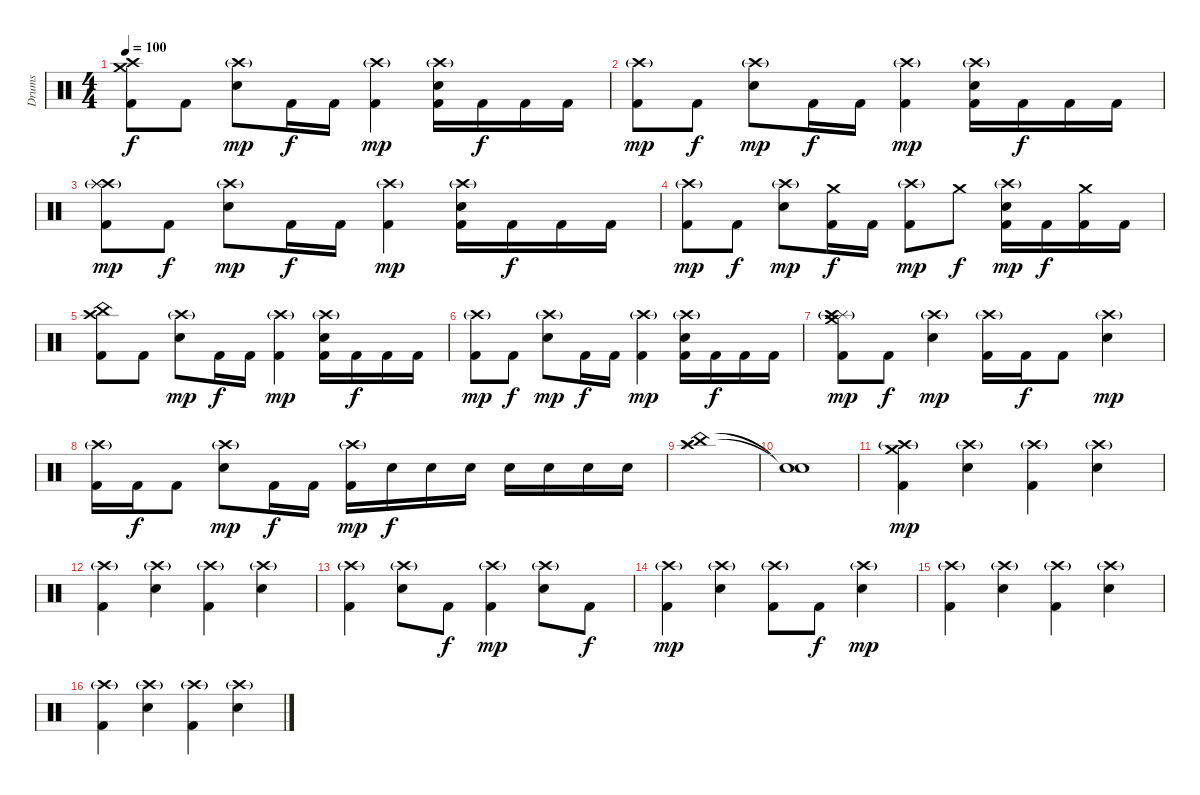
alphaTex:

\track ("Drums" "Drums") {instrument percussion}
\staff {score}
\articulation defaults
\ts (4 4)
\tempo 100
\clef neutral
\ks c
("Crash high (hit)" "Crash medium (hit)" "Kick (hit) 2").8{dy f} "Kick (hit) 2".8 ("Crash high (hit)"{g} "Electric Snare (hit)").8{dy mp} "Kick (hit) 2".16{dy f} "Kick (hit) 2".16 ("Crash high (hit)"{g} "Kick (hit) 2").4{dy mp} ("Crash high (hit)"{g} "Electric Snare (hit)" "Kick (hit) 2").16 "Kick (hit) 2".16{dy f} "Kick (hit) 2".16 "Kick (hit) 2".16 |
("Crash high (hit)"{g} "Kick (hit) 2").8{dy mp} "Kick (hit) 2".8{dy f} ("Crash high (hit)"{g} "Electric Snare (hit)").8{dy mp} "Kick (hit) 2".16{dy f} "Kick (hit) 2".16 ("Crash high (hit)"{g} "Kick (hit) 2").4{dy mp} ("Crash high (hit)"{g} "Electric Snare (hit)" "Kick (hit) 2").16 "Kick (hit) 2".16{dy f} "Kick (hit) 2".16 "Kick (hit) 2".16 |
("Crash high (hit)"{g} "Splash (hit)" "Splash (hit)" "Splash (hit)" "Kick (hit) 2").8{dy mp} "Kick (hit) 2".8{dy f} ("Crash high (hit)"{g} "Electric Snare (hit)").8{dy mp} "Kick (hit) 2".16{dy f} "Kick (hit) 2".16 ("Crash high (hit)"{g} "Kick (hit) 2").4{dy mp} ("Crash high (hit)"{g} "Electric Snare (hit)" "Kick (hit) 2").16 "Kick (hit) 2".16{dy f} "Kick (hit) 2".16 "Kick (hit) 2".16 |
("Crash high (hit)"{g} "Kick (hit) 2").8{dy mp} "Kick (hit) 2".8{dy f} ("Crash high (hit)"{g} "Electric Snare (hit)").8{dy mp} ("Crash medium (hit)" "Kick (hit) 2").16{dy f} "Kick (hit) 2".16 ("Crash high (hit)"{g} "Kick (hit) 2").8{dy mp} "Crash medium (hit)".8{dy f} ("Crash high (hit)"{g} "Electric Snare (hit)" "Kick (hit) 2").16{dy mp} "Kick (hit) 2".16{dy f} ("Crash medium (hit)" "Kick (hit) 2").16 "Kick (hit) 2".16 |
("Crash high (hit)" "China (hit)" "Kick (hit) 2").8 "Kick (hit) 2".8 ("Crash high (hit)"{g} "Electric Snare (hit)").8{dy mp} "Kick (hit) 2".16{dy f} "Kick (hit) 2".16 ("Crash high (hit)"{g} "Kick (hit) 2").4{dy mp} ("Crash high (hit)"{g} "Electric Snare (hit)" "Kick (hit) 2").16 "Kick (hit) 2".16{dy f} "Kick (hit) 2".16 "Kick (hit) 2".16 |
("Crash high (hit)"{g} "Kick (hit) 2").8{dy mp} "Kick (hit) 2".8{dy f} ("Crash high (hit)"{g} "Electric Snare (hit)").8{dy mp} "Kick (hit) 2".16{dy f} "Kick (hit) 2".16 ("Crash high (hit)"{g} "Kick (hit) 2").4{dy mp} ("Crash high (hit)"{g} "Electric Snare (hit)" "Kick (hit) 2").16 "Kick (hit) 2".16{dy f} "Kick (hit) 2".16 "Kick (hit) 2".16 |
("Crash medium (hit)" "Splash (hit)" "Crash high (hit)"{g} "Kick (hit) 2").8{dy mp} "Kick (hit) 2".8{dy f} ("Crash high (hit)"{g} "Electric Snare (hit)").4{dy mp} ("Crash high (hit)"{g} "Kick (hit) 2").16 "Kick (hit) 2".16{dy f} "Kick (hit) 2".8 ("Crash high (hit)"{g} "Electric Snare (hit)").4{dy mp} |
("Crash high (hit)"{g} "Kick (hit) 2").16 "Kick (hit) 2".16{dy f} "Kick (hit) 2".8 ("Crash high (hit)"{g} "Electric Snare (hit)").8{dy mp} "Kick (hit) 2".16{dy f} "Kick (hit) 2".16 ("Crash high (hit)"{g} "Kick (hit) 2").16{dy mp} "Electric Snare (hit)".16{dy f} "Electric Snare (hit)".16 "Electric Snare (hit)".16 "Electric Snare (hit)".16 "Electric Snare (hit)".16 "Electric Snare (hit)".16 "Electric Snare (hit)".16 |
("Splash (hit)" "China (hit)" "Crash high (hit)").1 |
("Snare (hit)"{t} "Snare (hit)"{t}).1 |
("Crash high (hit)"{g} "Crash medium (hit)" "Kick (hit) 2").4{dy mp} ("Crash high (hit)"{g} "Electric Snare (hit)").4 ("Crash high (hit)"{g} "Kick (hit) 2").4 ("Crash high (hit)"{g} "Electric Snare (hit)").4 |
("Crash high (hit)"{g} "Kick (hit) 2").4 ("Crash high (hit)"{g} "Electric Snare (hit)").4 ("Crash high (hit)"{g} "Kick (hit) 2").4 ("Crash high (hit)"{g} "Electric Snare (hit)").4 |
("Crash high (hit)"{g} "Kick (hit) 2").4 ("Crash high (hit)"{g} "Electric Snare (hit)").8 "Kick (hit) 2".8{dy f} ("Crash high (hit)"{g} "Kick (hit) 2").4{dy mp} ("Crash high (hit)"{g} "Electric Snare (hit)").8 "Kick (hit) 2".8{dy f} |
("Crash high (hit)"{g} "Kick (hit) 2").4{dy mp} ("Crash high (hit)"{g} "Electric Snare (hit)").4 ("Crash high (hit)"{g} "Kick (hit) 2").8 "Kick (hit) 2".8{dy f} ("Crash high (hit)"{g} "Electric Snare (hit)").4{dy mp} |
("Crash high (hit)"{g} "Kick (hit) 2").4 ("Crash high (hit)"{g} "Electric Snare (hit)").4 ("Crash high (hit)"{g} "Kick (hit) 2").4 ("Crash high (hit)"{g} "Electric Snare (hit)").4 |
("Crash high (hit)"{g} "Kick (hit) 2").4 ("Crash high (hit)"{g} "Electric Snare (hit)").4 ("Crash high (hit)"{g} "Kick (hit) 2").4 ("Crash high (hit)"{g} "Electric Snare (hit)").4
